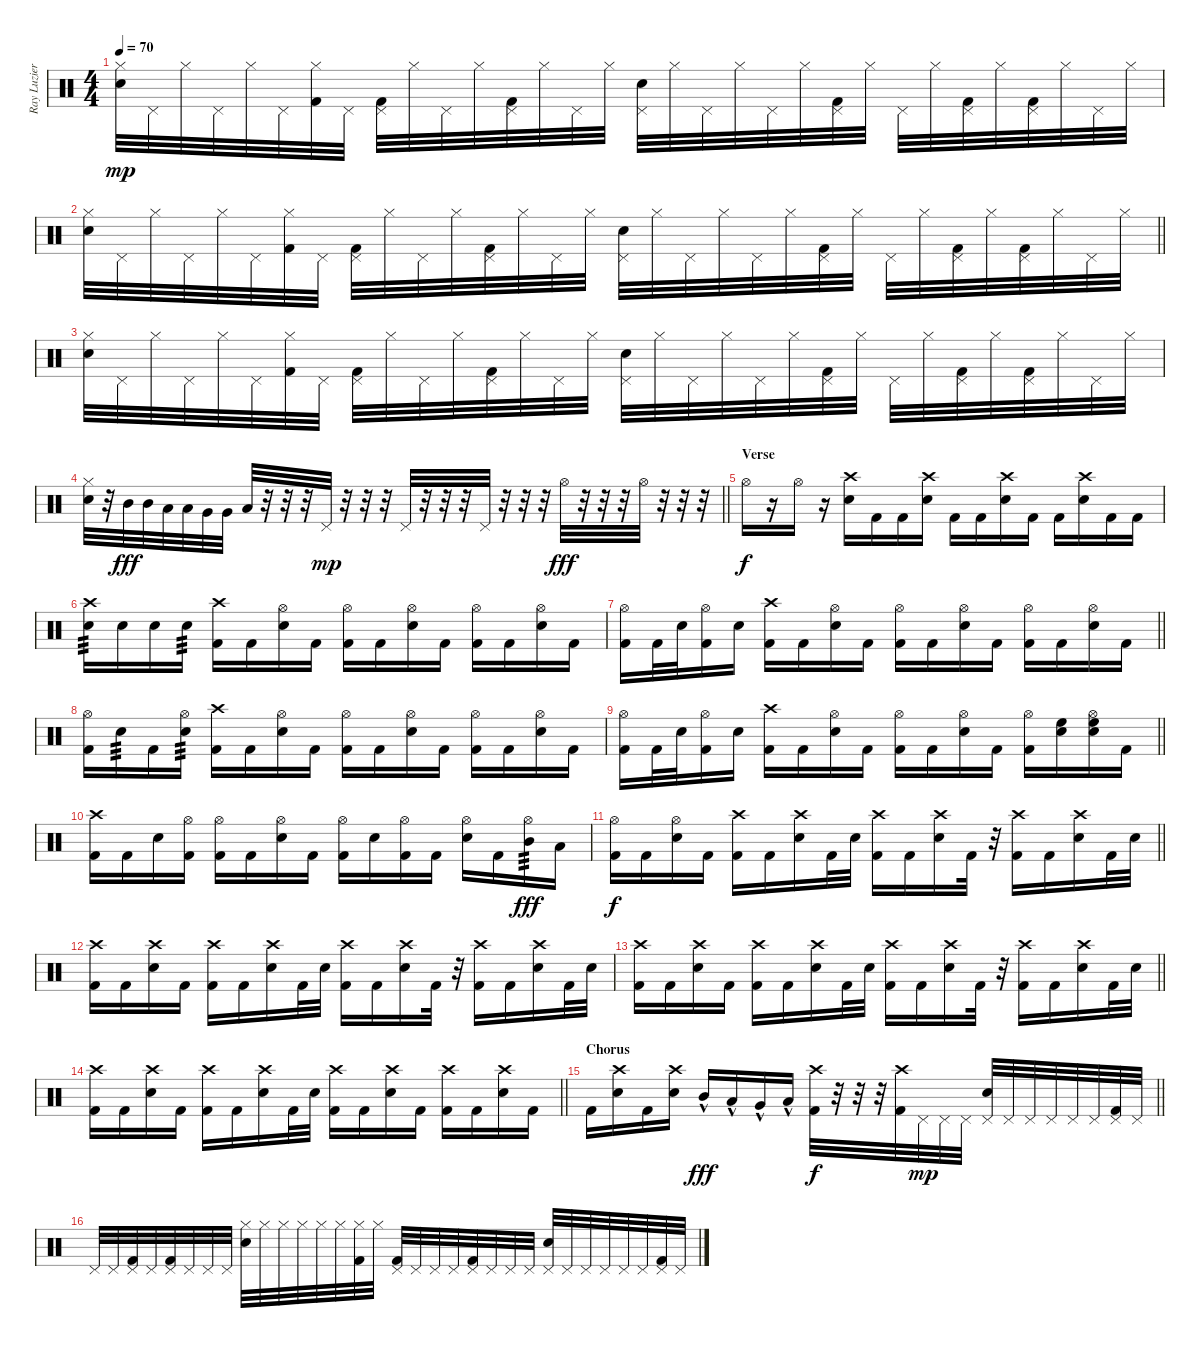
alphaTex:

\track ("Ray Luzier (Drums)" "Ray Luzier") {instrument percussion}
\staff {score}
\articulation defaults
\ts (4 4)
\tempo 70
\clef neutral
\ks c
("Hi-Hat (closed)" "Electric Snare (hit)").32{dy mp} "Pedal Hi-Hat (hit)".32 "Hi-Hat (closed)".32 "Pedal Hi-Hat (hit)".32 "Hi-Hat (closed)".32 "Pedal Hi-Hat (hit)".32 ("Hi-Hat (closed)" "Kick (hit) 2").32 "Pedal Hi-Hat (hit)".32 ("Pedal Hi-Hat (hit)" "Kick (hit) 2").32 "Hi-Hat (closed)".32 "Pedal Hi-Hat (hit)".32 "Hi-Hat (closed)".32 ("Pedal Hi-Hat (hit)" "Kick (hit) 2").32 "Hi-Hat (closed)".32 "Pedal Hi-Hat (hit)".32 "Hi-Hat (closed)".32 ("Pedal Hi-Hat (hit)" "Electric Snare (hit)").32 "Hi-Hat (closed)".32 "Pedal Hi-Hat (hit)".32 "Hi-Hat (closed)".32 "Pedal Hi-Hat (hit)".32 "Hi-Hat (closed)".32 ("Pedal Hi-Hat (hit)" "Kick (hit) 2").32 "Hi-Hat (closed)".32 "Pedal Hi-Hat (hit)".32 "Hi-Hat (closed)".32 ("Pedal Hi-Hat (hit)" "Kick (hit) 2").32 "Hi-Hat (closed)".32 ("Pedal Hi-Hat (hit)" "Kick (hit) 2").32 "Hi-Hat (closed)".32 "Pedal Hi-Hat (hit)".32 "Hi-Hat (closed)".32 |
\barLineRight lightlight
("Hi-Hat (closed)" "Electric Snare (hit)").32 "Pedal Hi-Hat (hit)".32 "Hi-Hat (closed)".32 "Pedal Hi-Hat (hit)".32 "Hi-Hat (closed)".32 "Pedal Hi-Hat (hit)".32 ("Hi-Hat (closed)" "Kick (hit) 2").32 "Pedal Hi-Hat (hit)".32 ("Pedal Hi-Hat (hit)" "Kick (hit) 2").32 "Hi-Hat (closed)".32 "Pedal Hi-Hat (hit)".32 "Hi-Hat (closed)".32 ("Pedal Hi-Hat (hit)" "Kick (hit) 2").32 "Hi-Hat (closed)".32 "Pedal Hi-Hat (hit)".32 "Hi-Hat (closed)".32 ("Pedal Hi-Hat (hit)" "Electric Snare (hit)").32 "Hi-Hat (closed)".32 "Pedal Hi-Hat (hit)".32 "Hi-Hat (closed)".32 "Pedal Hi-Hat (hit)".32 "Hi-Hat (closed)".32 ("Pedal Hi-Hat (hit)" "Kick (hit) 2").32 "Hi-Hat (closed)".32 "Pedal Hi-Hat (hit)".32 "Hi-Hat (closed)".32 ("Pedal Hi-Hat (hit)" "Kick (hit) 2").32 "Hi-Hat (closed)".32 ("Pedal Hi-Hat (hit)" "Kick (hit) 2").32 "Hi-Hat (closed)".32 "Pedal Hi-Hat (hit)".32 "Hi-Hat (closed)".32 |
("Hi-Hat (closed)" "Electric Snare (hit)").32 "Pedal Hi-Hat (hit)".32 "Hi-Hat (closed)".32 "Pedal Hi-Hat (hit)".32 "Hi-Hat (closed)".32 "Pedal Hi-Hat (hit)".32 ("Hi-Hat (closed)" "Kick (hit) 2").32 "Pedal Hi-Hat (hit)".32 ("Pedal Hi-Hat (hit)" "Kick (hit) 2").32 "Hi-Hat (closed)".32 "Pedal Hi-Hat (hit)".32 "Hi-Hat (closed)".32 ("Pedal Hi-Hat (hit)" "Kick (hit) 2").32 "Hi-Hat (closed)".32 "Pedal Hi-Hat (hit)".32 "Hi-Hat (closed)".32 ("Pedal Hi-Hat (hit)" "Electric Snare (hit)").32 "Hi-Hat (closed)".32 "Pedal Hi-Hat (hit)".32 "Hi-Hat (closed)".32 "Pedal Hi-Hat (hit)".32 "Hi-Hat (closed)".32 ("Pedal Hi-Hat (hit)" "Kick (hit) 2").32 "Hi-Hat (closed)".32 "Pedal Hi-Hat (hit)".32 "Hi-Hat (closed)".32 ("Pedal Hi-Hat (hit)" "Kick (hit) 2").32 "Hi-Hat (closed)".32 ("Pedal Hi-Hat (hit)" "Kick (hit) 2").32 "Hi-Hat (closed)".32 "Pedal Hi-Hat (hit)".32 "Hi-Hat (closed)".32 |
\barLineRight lightlight
("Hi-Hat (closed)" "Electric Snare (hit)").32 r.32 "Mid Tom (hit)".32{dy fff} "Mid Tom (hit)".32 "Low Tom (hit)".32 "Low Tom (hit)".32 "Very Low Tom (hit)".32 "Very Low Tom (hit)".32 "Low Floor Tom (hit)".32 r.32 r.32 r.32 "Pedal Hi-Hat (hit)".32{dy mp} r.32 r.32 r.32 "Pedal Hi-Hat (hit)".32 r.32 r.32 r.32 "Pedal Hi-Hat (hit)".32 r.32 r.32 r.32 "Hi-Hat (open)".32{dy fff} r.32 r.32 r.32 "Hi-Hat (open)".32 r.32 r.32 r.32 |
\section ("" "Verse")
"Hi-Hat (open)".16{dy f} r.16 "Hi-Hat (open)".16 r.16 ("Crash high (hit)" "Electric Snare (hit)").16 "Kick (hit) 2".16 "Kick (hit) 2".16 ("Crash high (hit)" "Electric Snare (hit)").16 "Kick (hit) 2".16 "Kick (hit) 2".16 ("Crash high (hit)" "Electric Snare (hit)").16 "Kick (hit) 2".16 "Kick (hit) 2".16 ("Crash high (hit)" "Electric Snare (hit)").16 "Kick (hit) 2".16 "Kick (hit) 2".16 |
("Crash high (hit)" "Electric Snare (hit)").16{tp 3} "Electric Snare (hit)".16 "Electric Snare (hit)".16 "Electric Snare (hit)".16{tp 3} ("Crash high (hit)" "Kick (hit) 2").16 "Kick (hit) 2".16 ("Hi-Hat (open)" "Electric Snare (hit)").16 "Kick (hit) 2".16 ("Hi-Hat (open)" "Kick (hit) 2").16 "Kick (hit) 2".16 ("Hi-Hat (open)" "Electric Snare (hit)").16 "Kick (hit) 2".16 ("Hi-Hat (open)" "Kick (hit) 2").16 "Kick (hit) 2".16 ("Hi-Hat (open)" "Electric Snare (hit)").16 "Kick (hit) 2".16 |
\barLineRight lightlight
("Hi-Hat (open)" "Kick (hit) 2").16 "Kick (hit) 2".32 "Electric Snare (hit)".32 ("Hi-Hat (open)" "Kick (hit) 2").16 "Electric Snare (hit)".16 ("Crash high (hit)" "Kick (hit) 2").16 "Kick (hit) 2".16 ("Hi-Hat (open)" "Electric Snare (hit)").16 "Kick (hit) 2".16 ("Hi-Hat (open)" "Kick (hit) 2").16 "Kick (hit) 2".16 ("Hi-Hat (open)" "Electric Snare (hit)").16 "Kick (hit) 2".16 ("Hi-Hat (open)" "Kick (hit) 2").16 "Kick (hit) 2".16 ("Hi-Hat (open)" "Electric Snare (hit)").16 "Kick (hit) 2".16 |
("Hi-Hat (open)" "Kick (hit) 2").16 "Electric Snare (hit)".16{tp 3} "Kick (hit) 2".16 ("Hi-Hat (open)" "Electric Snare (hit)").16{tp 3} ("Crash high (hit)" "Kick (hit) 2").16 "Kick (hit) 2".16 ("Hi-Hat (open)" "Electric Snare (hit)").16 "Kick (hit) 2".16 ("Hi-Hat (open)" "Kick (hit) 2").16 "Kick (hit) 2".16 ("Hi-Hat (open)" "Electric Snare (hit)").16 "Kick (hit) 2".16 ("Hi-Hat (open)" "Kick (hit) 2").16 "Kick (hit) 2".16 ("Hi-Hat (open)" "Electric Snare (hit)").16 "Kick (hit) 2".16 |
\barLineRight lightlight
("Hi-Hat (open)" "Kick (hit) 2").16 "Kick (hit) 2".32 "Electric Snare (hit)".32 ("Hi-Hat (open)" "Kick (hit) 2").16 "Electric Snare (hit)".16 ("Crash high (hit)" "Kick (hit) 2").16 "Kick (hit) 2".16 ("Hi-Hat (open)" "Electric Snare (hit)").16 "Kick (hit) 2".16 ("Hi-Hat (open)" "Kick (hit) 2").16 "Kick (hit) 2".16 ("Hi-Hat (open)" "Electric Snare (hit)").16 "Kick (hit) 2".16 ("Hi-Hat (open)" "Kick (hit) 2").16 ("Electric Snare (hit)" "High Floor Tom (hit)").16 ("Hi-Hat (open)" "Electric Snare (hit)" "High Floor Tom (hit)").16 "Kick (hit) 2".16 |
("Crash high (hit)" "Kick (hit) 2").16 "Kick (hit) 2".16 "Electric Snare (hit)".16 ("Hi-Hat (open)" "Kick (hit) 2").16 ("Hi-Hat (open)" "Kick (hit) 2").16 "Kick (hit) 2".16 ("Hi-Hat (open)" "Electric Snare (hit)").16 "Kick (hit) 2".16 ("Hi-Hat (open)" "Kick (hit) 2").16 "Electric Snare (hit)".16 ("Hi-Hat (open)" "Kick (hit) 2").16 "Kick (hit) 2".16 ("Hi-Hat (open)" "Electric Snare (hit)").16 "Kick (hit) 2".16 ("Hi-Hat (open)" "Mid Tom (hit)").16{tp 3 dy fff} "Low Tom (hit)".16 |
\barLineRight lightlight
("Hi-Hat (open)" "Kick (hit) 2").16{dy f} "Kick (hit) 2".16 ("Hi-Hat (open)" "Electric Snare (hit)").16 "Kick (hit) 2".16 ("Crash high (hit)" "Kick (hit) 2").16 "Kick (hit) 2".16 ("Crash high (hit)" "Electric Snare (hit)").16 "Kick (hit) 2".32 "Electric Snare (hit)".32 ("Crash high (hit)" "Kick (hit) 2").16 "Kick (hit) 2".16 ("Crash high (hit)" "Electric Snare (hit)").16 "Kick (hit) 2".32 r.32 ("Crash high (hit)" "Kick (hit) 2").16 "Kick (hit) 2".16 ("Crash high (hit)" "Electric Snare (hit)").16 "Kick (hit) 2".32 "Electric Snare (hit)".32 |
("Crash high (hit)" "Kick (hit) 2").16 "Kick (hit) 2".16 ("Crash high (hit)" "Electric Snare (hit)").16 "Kick (hit) 2".16 ("Crash high (hit)" "Kick (hit) 2").16 "Kick (hit) 2".16 ("Crash high (hit)" "Electric Snare (hit)").16 "Kick (hit) 2".32 "Electric Snare (hit)".32 ("Crash high (hit)" "Kick (hit) 2").16 "Kick (hit) 2".16 ("Crash high (hit)" "Electric Snare (hit)").16 "Kick (hit) 2".32 r.32 ("Crash high (hit)" "Kick (hit) 2").16 "Kick (hit) 2".16 ("Crash high (hit)" "Electric Snare (hit)").16 "Kick (hit) 2".32 "Electric Snare (hit)".32 |
\barLineRight lightlight
("Crash high (hit)" "Kick (hit) 2").16 "Kick (hit) 2".16 ("Crash high (hit)" "Electric Snare (hit)").16 "Kick (hit) 2".16 ("Crash high (hit)" "Kick (hit) 2").16 "Kick (hit) 2".16 ("Crash high (hit)" "Electric Snare (hit)").16 "Kick (hit) 2".32 "Electric Snare (hit)".32 ("Crash high (hit)" "Kick (hit) 2").16 "Kick (hit) 2".16 ("Crash high (hit)" "Electric Snare (hit)").16 "Kick (hit) 2".32 r.32 ("Crash high (hit)" "Kick (hit) 2").16 "Kick (hit) 2".16 ("Crash high (hit)" "Electric Snare (hit)").16 "Kick (hit) 2".32 "Electric Snare (hit)".32 |
\barLineRight lightlight
("Crash high (hit)" "Kick (hit) 2").16 "Kick (hit) 2".16 ("Crash high (hit)" "Electric Snare (hit)").16 "Kick (hit) 2".16 ("Crash high (hit)" "Kick (hit) 2").16 "Kick (hit) 2".16 ("Crash high (hit)" "Electric Snare (hit)").16 "Kick (hit) 2".32 "Electric Snare (hit)".32 ("Crash high (hit)" "Kick (hit) 2").16 "Kick (hit) 2".16 ("Crash high (hit)" "Electric Snare (hit)").16 "Kick (hit) 2".16 ("Crash high (hit)" "Kick (hit) 2").16 "Kick (hit) 2".16 ("Crash high (hit)" "Electric Snare (hit)").16 "Kick (hit) 2".16 |
\section ("" "Chorus")
\barLineRight lightlight "Kick (hit) 2".16
("Crash high (hit)" "Electric Snare (hit)").16 "Kick (hit) 2".16 ("Crash high (hit)" "Electric Snare (hit)").16 "Mid Tom (hit)"{hac}.16{dy fff} "Low Tom (hit)"{hac}.16 "Very Low Tom (hit)"{hac}.16 "Low Floor Tom (hit)"{hac}.16 ("Crash high (hit)" "Kick (hit) 2").32{dy f} r.32 r.32 r.32 ("Crash high (hit)" "Kick (hit) 2").32 "Pedal Hi-Hat (hit)".32{dy mp} "Pedal Hi-Hat (hit)".32 "Pedal Hi-Hat (hit)".32 ("Pedal Hi-Hat (hit)" "Electric Snare (hit)").32 "Pedal Hi-Hat (hit)".32 "Pedal Hi-Hat (hit)".32 "Pedal Hi-Hat (hit)".32 "Pedal Hi-Hat (hit)".32 "Pedal Hi-Hat (hit)".32 ("Pedal Hi-Hat (hit)" "Kick (hit) 2").32 "Pedal Hi-Hat (hit)".32 |
"Pedal Hi-Hat (hit)".32 "Pedal Hi-Hat (hit)".32 ("Pedal Hi-Hat (hit)" "Kick (hit) 2").32 "Pedal Hi-Hat (hit)".32 ("Pedal Hi-Hat (hit)" "Kick (hit) 2").32 "Pedal Hi-Hat (hit)".32 "Pedal Hi-Hat (hit)".32 "Pedal Hi-Hat (hit)".32 ("Hi-Hat (closed)" "Electric Snare (hit)").32 "Hi-Hat (closed)".32 "Hi-Hat (closed)".32 "Hi-Hat (closed)".32 "Hi-Hat (closed)".32 "Hi-Hat (closed)".32 ("Hi-Hat (closed)" "Kick (hit) 2").32 "Hi-Hat (closed)".32 ("Pedal Hi-Hat (hit)" "Kick (hit) 2").32 "Pedal Hi-Hat (hit)".32 "Pedal Hi-Hat (hit)".32 "Pedal Hi-Hat (hit)".32 ("Pedal Hi-Hat (hit)" "Kick (hit) 2").32 "Pedal Hi-Hat (hit)".32 "Pedal Hi-Hat (hit)".32 "Pedal Hi-Hat (hit)".32 ("Pedal Hi-Hat (hit)" "Electric Snare (hit)").32 "Pedal Hi-Hat (hit)".32 "Pedal Hi-Hat (hit)".32 "Pedal Hi-Hat (hit)".32 "Pedal Hi-Hat (hit)".32 "Pedal Hi-Hat (hit)".32 ("Pedal Hi-Hat (hit)" "Kick (hit) 2").32 "Pedal Hi-Hat (hit)".32
